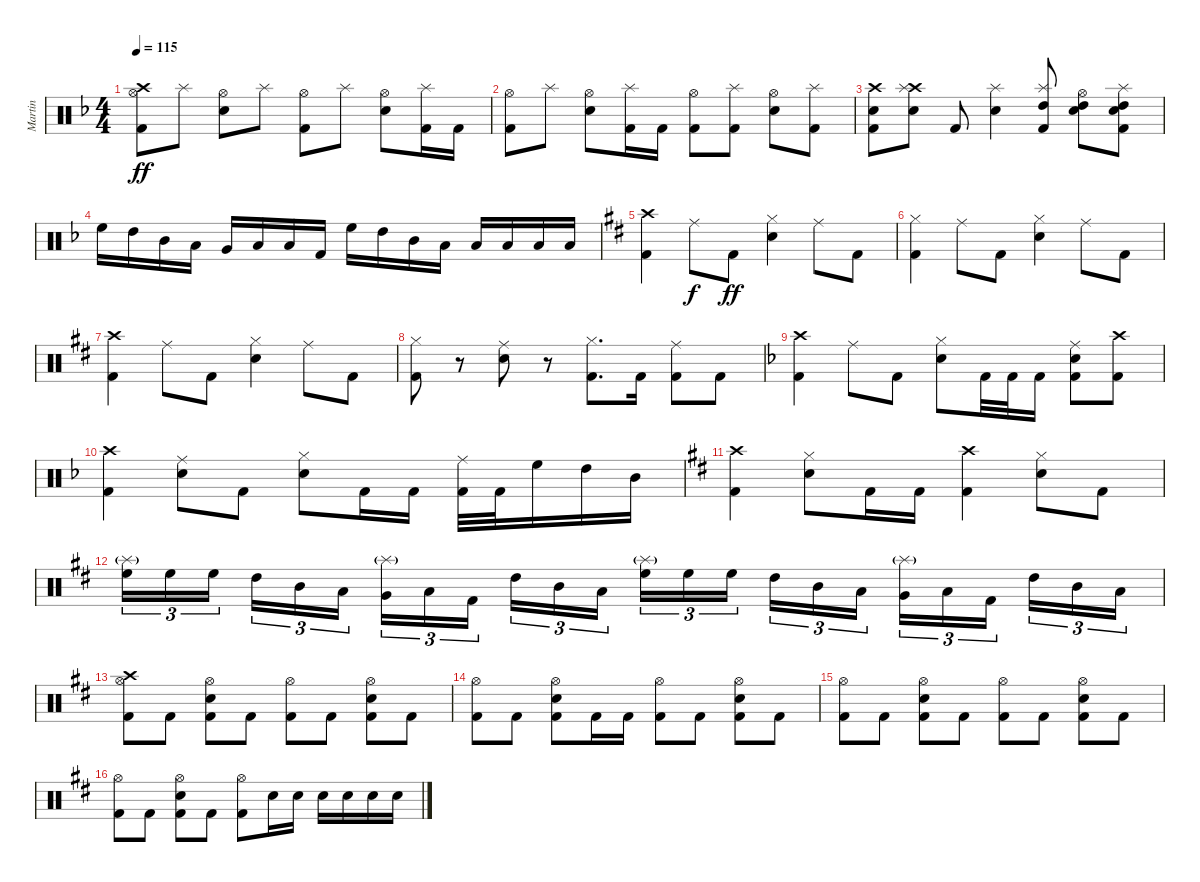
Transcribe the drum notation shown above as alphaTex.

\track ("Martin" "Martin") {instrument percussion}
\staff {score}
\articulation defaults
\ts (4 4)
\tempo 115
\clef neutral
\ks dminor
("Crash high (hit)" "Hi-Hat (open)" "Kick (hit) 2").8{dy ff} "Splash (hit)".8 ("Hi-Hat (open)" "Electric Snare (hit)").8 "Splash (hit)".8 ("Hi-Hat (open)" "Kick (hit) 2").8 "Splash (hit)".8 ("Hi-Hat (open)" "Electric Snare (hit)").8 ("Splash (hit)" "Kick (hit) 2").16 "Kick (hit) 2".16 |
("Hi-Hat (open)" "Kick (hit) 2").8 "Splash (hit)".8 ("Hi-Hat (open)" "Electric Snare (hit)").8 ("Splash (hit)" "Kick (hit) 2").16 "Kick (hit) 2".16 ("Hi-Hat (open)" "Kick (hit) 2").8 ("Splash (hit)" "Kick (hit) 2").8 ("Hi-Hat (open)" "Electric Snare (hit)").8 ("Splash (hit)" "Kick (hit) 2").8 |
("Crash high (hit)" "Electric Snare (hit)" "Kick (hit) 2").8 ("Crash high (hit)" "Splash (hit)" "Electric Snare (hit)").8 "Kick (hit) 2".8 ("Splash (hit)" "Electric Snare (hit)").4 ("Splash (hit)" "High Tom (hit)" "Kick (hit) 2").8 ("Hi-Hat (open)" "Electric Snare (hit)" "High Tom (hit)").8 ("Splash (hit)" "Electric Snare (hit)" "High Tom (hit)" "Kick (hit) 2").8 |
"High Floor Tom (hit)".16 "High Tom (hit)".16 "Mid Tom (hit)".16 "Low Tom (hit)".16 "Very Low Tom (hit)".16 "Low Floor Tom (hit)".16 "Low Floor Tom (hit)".16 "Kick (hit) 2".16 "High Floor Tom (hit)".16 "High Tom (hit)".16 "Mid Tom (hit)".16 "Low Tom (hit)".16 "Low Floor Tom (hit)".16 "Low Floor Tom (hit)".16 "Low Floor Tom (hit)".16 "Low Floor Tom (hit)".16 |
\ks bminor
("Crash high (hit)" "Kick (hit) 2").4 "Ride (middle)".8{dy f} "Kick (hit) 2".8{dy ff} ("Hi-Hat (closed)" "Electric Snare (hit)").4 "Ride (middle)".8 "Kick (hit) 2".8 |
("Hi-Hat (closed)" "Kick (hit) 2").4 "Ride (middle)".8 "Kick (hit) 2".8 ("Hi-Hat (closed)" "Electric Snare (hit)").4 "Ride (middle)".8 "Kick (hit) 2".8 |
("Crash high (hit)" "Kick (hit) 2").4 "Ride (middle)".8 "Kick (hit) 2".8 ("Hi-Hat (closed)" "Electric Snare (hit)").4 "Ride (middle)".8 "Kick (hit) 2".8 |
("Hi-Hat (closed)" "Kick (hit) 2").8 r.8 ("Ride (middle)" "Electric Snare (hit)").8 r.8 ("Hi-Hat (closed)" "Kick (hit) 2").8{d} "Kick (hit) 2".16 ("Ride (middle)" "Kick (hit) 2").8 "Kick (hit) 2".8 |
\ks dminor
("Crash high (hit)" "Kick (hit) 2").4 "Ride (middle)".8 "Kick (hit) 2".8 ("Hi-Hat (closed)" "Electric Snare (hit)").8 "Kick (hit) 2".32 "Kick (hit) 2".32 "Kick (hit) 2".16 ("Ride (middle)" "Electric Snare (hit)" "Kick (hit) 2").8 ("Crash high (hit)" "Kick (hit) 2").8 |
("Crash high (hit)" "Kick (hit) 2").4 ("Ride (middle)" "Electric Snare (hit)").8 "Kick (hit) 2".8 ("Hi-Hat (closed)" "Electric Snare (hit)").8 "Kick (hit) 2".16 "Kick (hit) 2".16 ("Ride (middle)" "Kick (hit) 2").32 "Kick (hit) 2".32 "High Floor Tom (hit)".16 "High Tom (hit)".16 "Mid Tom (hit)".16 |
\ks bminor
("Crash high (hit)" "Kick (hit) 2").4 ("Hi-Hat (closed)" "Electric Snare (hit)").8 "Kick (hit) 2".16 "Kick (hit) 2".16 ("Crash high (hit)" "Kick (hit) 2").4 ("Hi-Hat (closed)" "Electric Snare (hit)").8 "Kick (hit) 2".8 |
("Splash (hit)"{g} "High Floor Tom (hit)").16{tu (3 2)} "High Floor Tom (hit)".16{tu (3 2)} "High Floor Tom (hit)".16{tu (3 2) beam splitsecondary} "High Tom (hit)".16{tu (3 2)} "Mid Tom (hit)".16{tu (3 2)} "Low Tom (hit)".16{tu (3 2)} ("Splash (hit)"{g} "Very Low Tom (hit)").16{tu (3 2)} "Low Floor Tom (hit)".16{tu (3 2)} "Kick (hit) 2".16{tu (3 2) beam splitsecondary} "High Tom (hit)".16{tu (3 2)} "Mid Tom (hit)".16{tu (3 2)} "Low Tom (hit)".16{tu (3 2)} ("Splash (hit)"{g} "High Floor Tom (hit)").16{tu (3 2)} "High Floor Tom (hit)".16{tu (3 2)} "High Floor Tom (hit)".16{tu (3 2) beam splitsecondary} "High Tom (hit)".16{tu (3 2)} "Mid Tom (hit)".16{tu (3 2)} "Low Tom (hit)".16{tu (3 2)} ("Splash (hit)"{g} "Very Low Tom (hit)").16{tu (3 2)} "Low Floor Tom (hit)".16{tu (3 2)} "Kick (hit) 2".16{tu (3 2) beam splitsecondary} "High Tom (hit)".16{tu (3 2)} "Mid Tom (hit)".16{tu (3 2)} "Low Tom (hit)".16{tu (3 2)} |
("Crash high (hit)" "Hi-Hat (open)" "Kick (hit) 2").8 "Kick (hit) 2".8 ("Hi-Hat (open)" "Electric Snare (hit)" "Kick (hit) 2").8 "Kick (hit) 2".8 ("Hi-Hat (open)" "Kick (hit) 2").8 "Kick (hit) 2".8 ("Hi-Hat (open)" "Electric Snare (hit)" "Kick (hit) 2").8 "Kick (hit) 2".8 |
("Hi-Hat (open)" "Kick (hit) 2").8 "Kick (hit) 2".8 ("Hi-Hat (open)" "Electric Snare (hit)" "Kick (hit) 2").8 "Kick (hit) 2".16 "Kick (hit) 2".16 ("Hi-Hat (open)" "Kick (hit) 2").8 "Kick (hit) 2".8 ("Hi-Hat (open)" "Electric Snare (hit)" "Kick (hit) 2").8 "Kick (hit) 2".8 |
("Hi-Hat (open)" "Kick (hit) 2").8 "Kick (hit) 2".8 ("Hi-Hat (open)" "Electric Snare (hit)" "Kick (hit) 2").8 "Kick (hit) 2".8 ("Hi-Hat (open)" "Kick (hit) 2").8 "Kick (hit) 2".8 ("Hi-Hat (open)" "Electric Snare (hit)" "Kick (hit) 2").8 "Kick (hit) 2".8 |
("Hi-Hat (open)" "Kick (hit) 2").8 "Kick (hit) 2".8 ("Hi-Hat (open)" "Electric Snare (hit)" "Kick (hit) 2").8 "Kick (hit) 2".8 ("Hi-Hat (open)" "Kick (hit) 2").8 "Electric Snare (hit)".16 "Electric Snare (hit)".16 "Electric Snare (hit)".16 "Electric Snare (hit)".16 "Electric Snare (hit)".16 "Electric Snare (hit)".16
